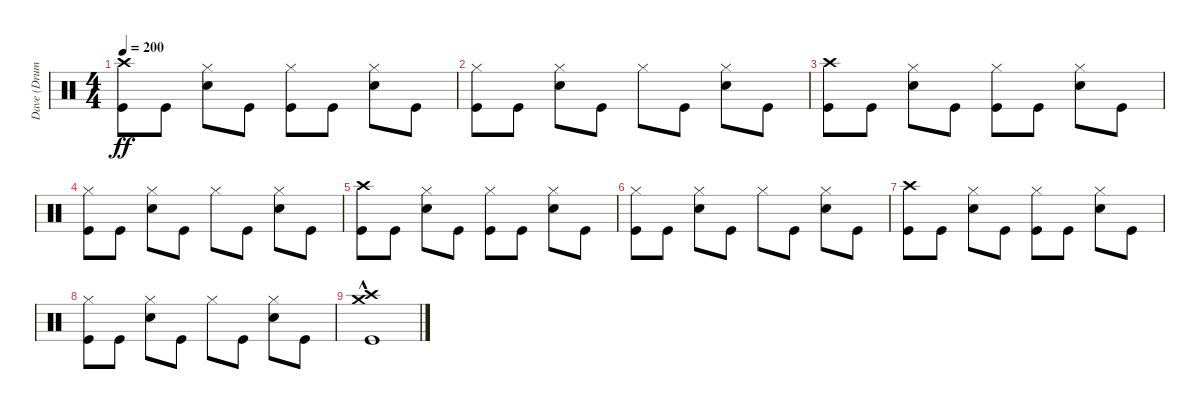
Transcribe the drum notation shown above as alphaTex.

\track ("Dave (Drums)" "Dave (Drum") {instrument percussion}
\staff {score}
\articulation defaults
\ts (4 4)
\tempo 200
\clef neutral
\ks c
("Crash high (hit)" "Kick (hit)").8{dy ff} "Kick (hit)".8 ("Hi-Hat (closed)" "Snare (hit) 2").8 "Kick (hit)".8 ("Hi-Hat (closed)" "Kick (hit)").8 "Kick (hit)".8 ("Hi-Hat (closed)" "Snare (hit) 2").8 "Kick (hit)".8 |
("Hi-Hat (closed)" "Kick (hit)").8 "Kick (hit)".8 ("Hi-Hat (closed)" "Snare (hit) 2").8 "Kick (hit)".8 "Hi-Hat (closed)".8 "Kick (hit)".8 ("Hi-Hat (closed)" "Snare (hit) 2").8 "Kick (hit)".8 |
("Crash high (hit)" "Kick (hit)").8 "Kick (hit)".8 ("Hi-Hat (closed)" "Snare (hit) 2").8 "Kick (hit)".8 ("Hi-Hat (closed)" "Kick (hit)").8 "Kick (hit)".8 ("Hi-Hat (closed)" "Snare (hit) 2").8 "Kick (hit)".8 |
("Hi-Hat (closed)" "Kick (hit)").8 "Kick (hit)".8 ("Hi-Hat (closed)" "Snare (hit) 2").8 "Kick (hit)".8 "Hi-Hat (closed)".8 "Kick (hit)".8 ("Hi-Hat (closed)" "Snare (hit) 2").8 "Kick (hit)".8 |
("Crash high (hit)" "Kick (hit)").8 "Kick (hit)".8 ("Hi-Hat (closed)" "Snare (hit) 2").8 "Kick (hit)".8 ("Hi-Hat (closed)" "Kick (hit)").8 "Kick (hit)".8 ("Hi-Hat (closed)" "Snare (hit) 2").8 "Kick (hit)".8 |
("Hi-Hat (closed)" "Kick (hit)").8 "Kick (hit)".8 ("Hi-Hat (closed)" "Snare (hit) 2").8 "Kick (hit)".8 "Hi-Hat (closed)".8 "Kick (hit)".8 ("Hi-Hat (closed)" "Snare (hit) 2").8 "Kick (hit)".8 |
("Crash high (hit)" "Kick (hit)").8 "Kick (hit)".8 ("Hi-Hat (closed)" "Snare (hit) 2").8 "Kick (hit)".8 ("Hi-Hat (closed)" "Kick (hit)").8 "Kick (hit)".8 ("Hi-Hat (closed)" "Snare (hit) 2").8 "Kick (hit)".8 |
("Hi-Hat (closed)" "Kick (hit)").8 "Kick (hit)".8 ("Hi-Hat (closed)" "Snare (hit) 2").8 "Kick (hit)".8 "Hi-Hat (closed)".8 "Kick (hit)".8 ("Hi-Hat (closed)" "Snare (hit) 2").8 "Kick (hit)".8 |
("Crash high (hit)" "Crash medium (hit)" "Kick (hit)"{hac}).1
